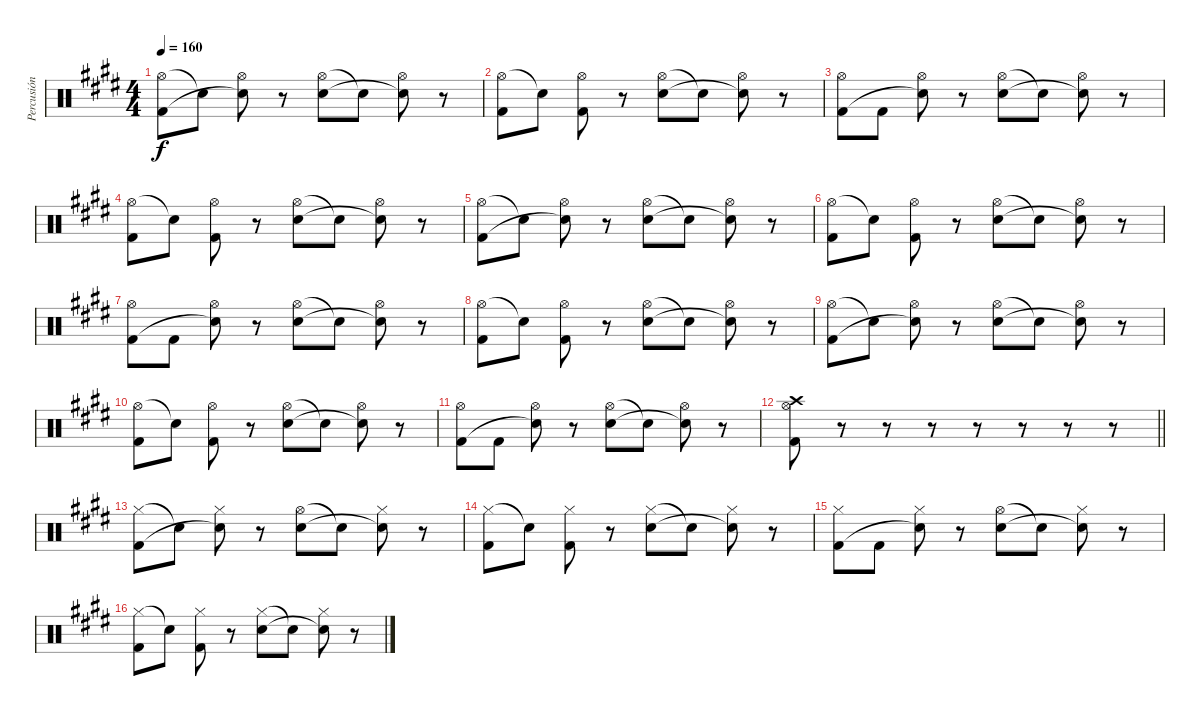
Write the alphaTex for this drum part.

\track ("Percusión" "Percusión") {instrument percussion}
\staff {score}
\articulation defaults
\ts (4 4)
\tempo 160
\clef neutral
\ks e
("Hi-Hat (open)" "Kick (hit) 2").8{dy f} "Snare (hit) 2"{t}.8 ("Hi-Hat (open)" "Snare (hit) 2"{t}).8 r.8 ("Hi-Hat (open)" "Electric Snare (hit)").8 "Snare (hit) 2"{t}.8 ("Hi-Hat (open)" "Snare (hit) 2"{t}).8 r.8 |
("Hi-Hat (open)" "Kick (hit) 2").8 "Snare (hit) 2"{t}.8 ("Hi-Hat (open)" "Kick (hit) 2").8 r.8 ("Hi-Hat (open)" "Electric Snare (hit)").8 "Snare (hit) 2"{t}.8 ("Hi-Hat (open)" "Snare (hit) 2"{t}).8 r.8 |
("Hi-Hat (open)" "Kick (hit) 2").8 "Kick (hit) 2".8 ("Hi-Hat (open)" "Snare (hit) 2"{t}).8 r.8 ("Hi-Hat (open)" "Electric Snare (hit)").8 "Snare (hit) 2"{t}.8 ("Hi-Hat (open)" "Snare (hit) 2"{t}).8 r.8 |
("Hi-Hat (open)" "Kick (hit) 2").8 "Snare (hit) 2"{t}.8 ("Hi-Hat (open)" "Kick (hit) 2").8 r.8 ("Hi-Hat (open)" "Electric Snare (hit)").8 "Snare (hit) 2"{t}.8 ("Hi-Hat (open)" "Snare (hit) 2"{t}).8 r.8 |
("Hi-Hat (open)" "Kick (hit) 2").8 "Snare (hit) 2"{t}.8 ("Hi-Hat (open)" "Snare (hit) 2"{t}).8 r.8 ("Hi-Hat (open)" "Electric Snare (hit)").8 "Snare (hit) 2"{t}.8 ("Hi-Hat (open)" "Snare (hit) 2"{t}).8 r.8 |
("Hi-Hat (open)" "Kick (hit) 2").8 "Snare (hit) 2"{t}.8 ("Hi-Hat (open)" "Kick (hit) 2").8 r.8 ("Hi-Hat (open)" "Electric Snare (hit)").8 "Snare (hit) 2"{t}.8 ("Hi-Hat (open)" "Snare (hit) 2"{t}).8 r.8 |
("Hi-Hat (open)" "Kick (hit) 2").8 "Kick (hit) 2".8 ("Hi-Hat (open)" "Snare (hit) 2"{t}).8 r.8 ("Hi-Hat (open)" "Electric Snare (hit)").8 "Snare (hit) 2"{t}.8 ("Hi-Hat (open)" "Snare (hit) 2"{t}).8 r.8 |
("Hi-Hat (open)" "Kick (hit) 2").8 "Snare (hit) 2"{t}.8 ("Hi-Hat (open)" "Kick (hit) 2").8 r.8 ("Hi-Hat (open)" "Electric Snare (hit)").8 "Snare (hit) 2"{t}.8 ("Hi-Hat (open)" "Snare (hit) 2"{t}).8 r.8 |
("Hi-Hat (open)" "Kick (hit) 2").8 "Snare (hit) 2"{t}.8 ("Hi-Hat (open)" "Snare (hit) 2"{t}).8 r.8 ("Hi-Hat (open)" "Electric Snare (hit)").8 "Snare (hit) 2"{t}.8 ("Hi-Hat (open)" "Snare (hit) 2"{t}).8 r.8 |
("Hi-Hat (open)" "Kick (hit) 2").8 "Snare (hit) 2"{t}.8 ("Hi-Hat (open)" "Kick (hit) 2").8 r.8 ("Hi-Hat (open)" "Electric Snare (hit)").8 "Snare (hit) 2"{t}.8 ("Hi-Hat (open)" "Snare (hit) 2"{t}).8 r.8 |
("Hi-Hat (open)" "Kick (hit) 2").8 "Kick (hit) 2".8 ("Hi-Hat (open)" "Snare (hit) 2"{t}).8 r.8 ("Hi-Hat (open)" "Electric Snare (hit)").8 "Snare (hit) 2"{t}.8 ("Hi-Hat (open)" "Snare (hit) 2"{t}).8 r.8 |
\barLineRight lightlight
("Hi-Hat (open)" "Crash high (hit)" "Kick (hit) 2").8 r.8 r.8 r.8 r.8 r.8 r.8 r.8 |
\section ("" "")
("Hi-Hat (closed)" "Kick (hit) 2").8 "Snare (hit) 2"{t}.8 ("Hi-Hat (closed)" "Snare (hit) 2"{t}).8 r.8 ("Hi-Hat (open)" "Electric Snare (hit)").8 "Snare (hit) 2"{t}.8 ("Hi-Hat (closed)" "Snare (hit) 2"{t}).8 r.8 |
("Hi-Hat (closed)" "Kick (hit) 2").8 "Snare (hit) 2"{t}.8 ("Hi-Hat (closed)" "Kick (hit) 2").8 r.8 ("Hi-Hat (closed)" "Electric Snare (hit)").8 "Snare (hit) 2"{t}.8 ("Hi-Hat (closed)" "Snare (hit) 2"{t}).8 r.8 |
("Hi-Hat (closed)" "Kick (hit) 2").8 "Kick (hit) 2".8 ("Hi-Hat (closed)" "Snare (hit) 2"{t}).8 r.8 ("Hi-Hat (open)" "Electric Snare (hit)").8 "Snare (hit) 2"{t}.8 ("Hi-Hat (closed)" "Snare (hit) 2"{t}).8 r.8 |
("Hi-Hat (closed)" "Kick (hit) 2").8 "Snare (hit) 2"{t}.8 ("Hi-Hat (closed)" "Kick (hit) 2").8 r.8 ("Hi-Hat (closed)" "Electric Snare (hit)").8 "Snare (hit) 2"{t}.8 ("Hi-Hat (closed)" "Snare (hit) 2"{t}).8 r.8
